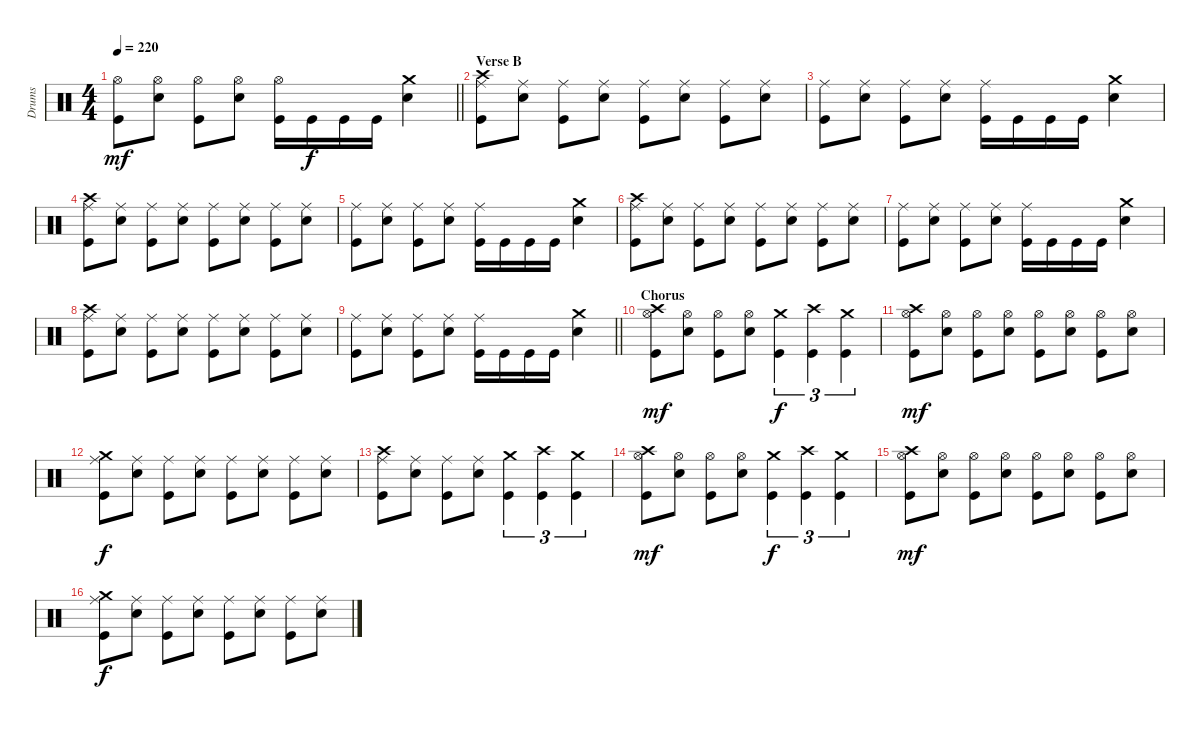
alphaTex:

\track ("Drums" "Drums") {instrument percussion}
\staff {score}
\articulation defaults
\ts (4 4)
\tempo 220
\clef neutral
\barLineRight lightlight
\ks c
("Hi-Hat (open)" "Kick (hit)").8{dy mf} ("Hi-Hat (open)" "Electric Snare (hit)").8 ("Hi-Hat (open)" "Kick (hit)").8 ("Hi-Hat (open)" "Electric Snare (hit)").8 ("Hi-Hat (open)" "Kick (hit)").16 "Kick (hit)".16{dy f} "Kick (hit)".16 "Kick (hit)".16 ("Crash medium (hit)" "Electric Snare (hit)").4 |
\section ("" "Verse B")
("Crash high (hit)" "Ride (middle)" "Kick (hit)").8 ("Ride (middle)" "Electric Snare (hit)").8 ("Ride (middle)" "Kick (hit)").8 ("Ride (middle)" "Electric Snare (hit)").8 ("Ride (middle)" "Kick (hit)").8 ("Ride (middle)" "Electric Snare (hit)").8 ("Ride (middle)" "Kick (hit)").8 ("Ride (middle)" "Electric Snare (hit)").8 |
("Ride (middle)" "Kick (hit)").8 ("Ride (middle)" "Electric Snare (hit)").8 ("Ride (middle)" "Kick (hit)").8 ("Ride (middle)" "Electric Snare (hit)").8 ("Ride (middle)" "Kick (hit)").16 "Kick (hit)".16 "Kick (hit)".16 "Kick (hit)".16 ("Crash medium (hit)" "Electric Snare (hit)").4 |
("Crash high (hit)" "Ride (middle)" "Kick (hit)").8 ("Ride (middle)" "Electric Snare (hit)").8 ("Ride (middle)" "Kick (hit)").8 ("Ride (middle)" "Electric Snare (hit)").8 ("Ride (middle)" "Kick (hit)").8 ("Ride (middle)" "Electric Snare (hit)").8 ("Ride (middle)" "Kick (hit)").8 ("Ride (middle)" "Electric Snare (hit)").8 |
("Ride (middle)" "Kick (hit)").8 ("Ride (middle)" "Electric Snare (hit)").8 ("Ride (middle)" "Kick (hit)").8 ("Ride (middle)" "Electric Snare (hit)").8 ("Ride (middle)" "Kick (hit)").16 "Kick (hit)".16 "Kick (hit)".16 "Kick (hit)".16 ("Crash medium (hit)" "Electric Snare (hit)").4 |
("Crash high (hit)" "Ride (middle)" "Kick (hit)").8 ("Ride (middle)" "Electric Snare (hit)").8 ("Ride (middle)" "Kick (hit)").8 ("Ride (middle)" "Electric Snare (hit)").8 ("Ride (middle)" "Kick (hit)").8 ("Ride (middle)" "Electric Snare (hit)").8 ("Ride (middle)" "Kick (hit)").8 ("Ride (middle)" "Electric Snare (hit)").8 |
("Ride (middle)" "Kick (hit)").8 ("Ride (middle)" "Electric Snare (hit)").8 ("Ride (middle)" "Kick (hit)").8 ("Ride (middle)" "Electric Snare (hit)").8 ("Ride (middle)" "Kick (hit)").16 "Kick (hit)".16 "Kick (hit)".16 "Kick (hit)".16 ("Crash medium (hit)" "Electric Snare (hit)").4 |
("Crash high (hit)" "Ride (middle)" "Kick (hit)").8 ("Ride (middle)" "Electric Snare (hit)").8 ("Ride (middle)" "Kick (hit)").8 ("Ride (middle)" "Electric Snare (hit)").8 ("Ride (middle)" "Kick (hit)").8 ("Ride (middle)" "Electric Snare (hit)").8 ("Ride (middle)" "Kick (hit)").8 ("Ride (middle)" "Electric Snare (hit)").8 |
\barLineRight lightlight
("Ride (middle)" "Kick (hit)").8 ("Ride (middle)" "Electric Snare (hit)").8 ("Ride (middle)" "Kick (hit)").8 ("Ride (middle)" "Electric Snare (hit)").8 ("Ride (middle)" "Kick (hit)").16 "Kick (hit)".16 "Kick (hit)".16 "Kick (hit)".16 ("Crash medium (hit)" "Electric Snare (hit)").4 |
\section ("" "Chorus")
("Crash high (hit)" "Hi-Hat (open)" "Kick (hit)").8{dy mf} ("Hi-Hat (open)" "Electric Snare (hit)").8 ("Hi-Hat (open)" "Kick (hit)").8 ("Hi-Hat (open)" "Electric Snare (hit)").8 ("Crash medium (hit)" "Kick (hit)").4{tu (3 2) dy f} ("Crash high (hit)" "Kick (hit)").4{tu (3 2)} ("Crash medium (hit)" "Kick (hit)").4{tu (3 2)} |
("Crash high (hit)" "Hi-Hat (open)" "Kick (hit)").8{dy mf} ("Hi-Hat (open)" "Electric Snare (hit)").8 ("Hi-Hat (open)" "Kick (hit)").8 ("Hi-Hat (open)" "Electric Snare (hit)").8 ("Hi-Hat (open)" "Kick (hit)").8 ("Hi-Hat (open)" "Electric Snare (hit)").8 ("Hi-Hat (open)" "Kick (hit)").8 ("Hi-Hat (open)" "Electric Snare (hit)").8 |
("Crash medium (hit)" "Ride (middle)" "Kick (hit)").8{dy f} ("Ride (middle)" "Electric Snare (hit)").8 ("Ride (middle)" "Kick (hit)").8 ("Ride (middle)" "Electric Snare (hit)").8 ("Ride (middle)" "Kick (hit)").8 ("Ride (middle)" "Electric Snare (hit)").8 ("Ride (middle)" "Kick (hit)").8 ("Ride (middle)" "Electric Snare (hit)").8 |
("Crash high (hit)" "Ride (middle)" "Kick (hit)").8 ("Ride (middle)" "Electric Snare (hit)").8 ("Ride (middle)" "Kick (hit)").8 ("Ride (middle)" "Electric Snare (hit)").8 ("Crash medium (hit)" "Kick (hit)").4{tu (3 2)} ("Crash high (hit)" "Kick (hit)").4{tu (3 2)} ("Crash medium (hit)" "Kick (hit)").4{tu (3 2)} |
("Crash high (hit)" "Hi-Hat (open)" "Kick (hit)").8{dy mf} ("Hi-Hat (open)" "Electric Snare (hit)").8 ("Hi-Hat (open)" "Kick (hit)").8 ("Hi-Hat (open)" "Electric Snare (hit)").8 ("Crash medium (hit)" "Kick (hit)").4{tu (3 2) dy f} ("Crash high (hit)" "Kick (hit)").4{tu (3 2)} ("Crash medium (hit)" "Kick (hit)").4{tu (3 2)} |
("Crash high (hit)" "Hi-Hat (open)" "Kick (hit)").8{dy mf} ("Hi-Hat (open)" "Electric Snare (hit)").8 ("Hi-Hat (open)" "Kick (hit)").8 ("Hi-Hat (open)" "Electric Snare (hit)").8 ("Hi-Hat (open)" "Kick (hit)").8 ("Hi-Hat (open)" "Electric Snare (hit)").8 ("Hi-Hat (open)" "Kick (hit)").8 ("Hi-Hat (open)" "Electric Snare (hit)").8 |
("Crash medium (hit)" "Ride (middle)" "Kick (hit)").8{dy f} ("Ride (middle)" "Electric Snare (hit)").8 ("Ride (middle)" "Kick (hit)").8 ("Ride (middle)" "Electric Snare (hit)").8 ("Ride (middle)" "Kick (hit)").8 ("Ride (middle)" "Electric Snare (hit)").8 ("Ride (middle)" "Kick (hit)").8 ("Ride (middle)" "Electric Snare (hit)").8
